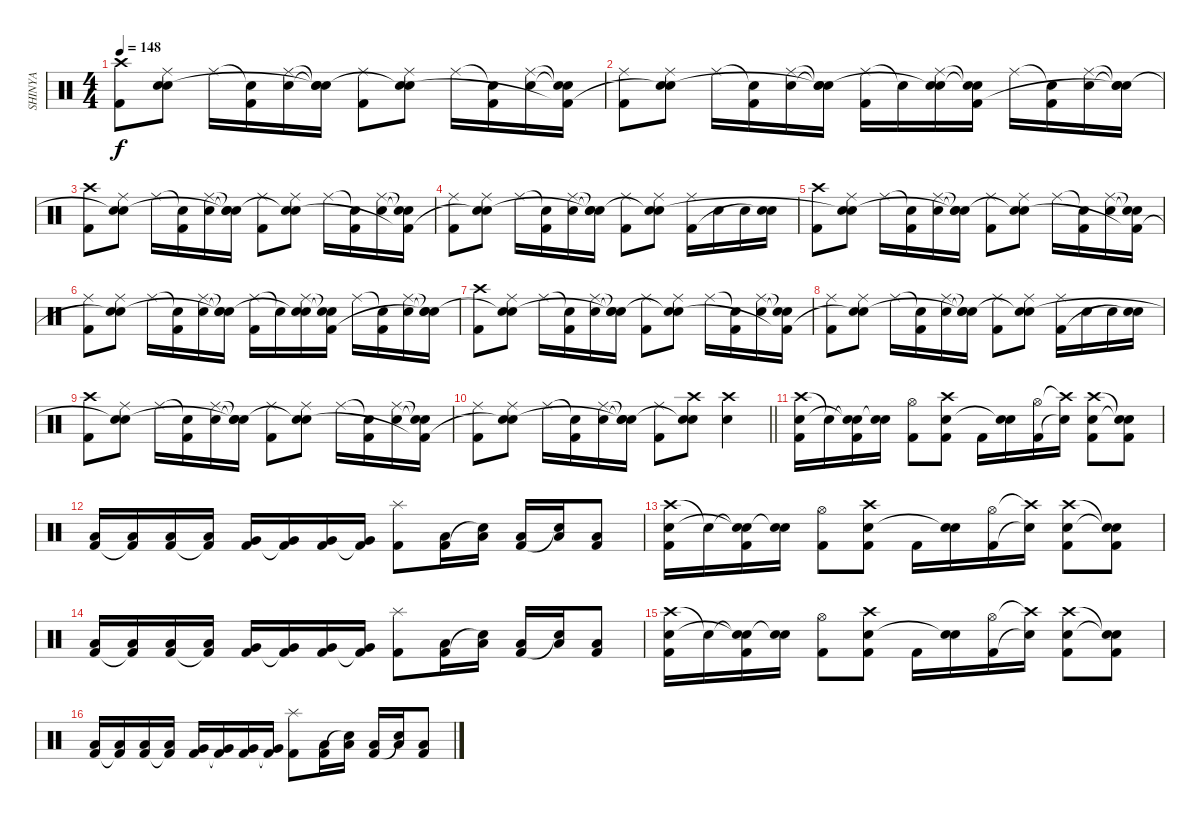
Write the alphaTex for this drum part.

\track ("SHINYA" "SHINYA") {instrument percussion}
\staff {score}
\articulation defaults
\ts (4 4)
\tempo 148
\clef neutral
\ks c
("Crash high (hit)" "Kick (hit) 2").8{dy f} ("Ride (middle)" "Electric Snare (hit)" "Snare (hit)"{t}).8 "Ride (middle)".16 ("Snare (hit)"{t} "Kick (hit) 2").16 ("Ride (middle)" "Electric Snare (hit)").16 ("Snare (hit)"{t} "Snare (hit)"{t} "Snare (hit)"{t}).16 ("Ride (middle)" "Kick (hit) 2").8 ("Ride (middle)" "Electric Snare (hit)" "Snare (hit)"{t}).8 "Ride (middle)".16 ("Snare (hit)"{t} "Kick (hit) 2").16 ("Ride (middle)" "Electric Snare (hit)").16 ("Snare (hit)"{t} "Snare (hit)"{t} "Kick (hit) 2"{t}).16 |
("Ride (middle)" "Kick (hit) 2").8 ("Ride (middle)" "Electric Snare (hit)" "Snare (hit)"{t}).8 "Ride (middle)".16 ("Snare (hit)"{t} "Kick (hit) 2").16 ("Ride (middle)" "Electric Snare (hit)").16 ("Snare (hit)"{t} "Electric Snare (hit)"{t} "Snare (hit)"{t}).16 ("Ride (middle)" "Kick (hit) 2").16 "Snare (hit)"{t}.16 ("Ride (middle)" "Electric Snare (hit)" "Snare (hit)"{t}).16 ("Snare (hit)"{t} "Snare (hit)"{t} "Kick (hit) 2").16 "Ride (middle)".16 ("Snare (hit)"{t} "Kick (hit) 2").16 ("Ride (middle)" "Electric Snare (hit)").16 ("Snare (hit)"{t} "Electric Snare (hit)"{t} "Snare (hit)"{t}).16 |
("Crash high (hit)" "Kick (hit) 2").8 ("Ride (middle)" "Electric Snare (hit)" "Snare (hit)"{t}).8 "Ride (middle)".16 ("Snare (hit)"{t} "Kick (hit) 2").16 ("Ride (middle)" "Electric Snare (hit)").16 ("Snare (hit)"{t} "Snare (hit)"{t} "Snare (hit)"{t}).16 ("Ride (middle)" "Kick (hit) 2").8 ("Ride (middle)" "Electric Snare (hit)" "Snare (hit)"{t}).8 "Ride (middle)".16 ("Snare (hit)"{t} "Kick (hit) 2").16 ("Ride (middle)" "Electric Snare (hit)").16 ("Snare (hit)"{t} "Snare (hit)"{t} "Kick (hit) 2"{t}).16 |
("Ride (middle)" "Kick (hit) 2").8 ("Ride (middle)" "Electric Snare (hit)" "Snare (hit)"{t}).8 "Ride (middle)".16 ("Snare (hit)"{t} "Kick (hit) 2").16 ("Ride (middle)" "Electric Snare (hit)").16 ("Snare (hit)"{t} "Electric Snare (hit)"{t} "Snare (hit)"{t}).16 ("Ride (middle)" "Kick (hit) 2").8 ("Ride (middle)" "Electric Snare (hit)" "Snare (hit)"{t}).8 ("Ride (middle)" "Kick (hit) 2").16 "Electric Snare (hit)".16 "Electric Snare (hit)".16 ("Electric Snare (hit)" "Snare (hit)"{t}).16 |
("Crash high (hit)" "Kick (hit) 2").8 ("Ride (middle)" "Electric Snare (hit)" "Snare (hit)"{t}).8 "Ride (middle)".16 ("Snare (hit)"{t} "Kick (hit) 2").16 ("Ride (middle)" "Electric Snare (hit)").16 ("Snare (hit)"{t} "Snare (hit)"{t} "Snare (hit)"{t}).16 ("Ride (middle)" "Kick (hit) 2").8 ("Ride (middle)" "Electric Snare (hit)" "Snare (hit)"{t}).8 "Ride (middle)".16 ("Snare (hit)"{t} "Kick (hit) 2").16 ("Ride (middle)" "Electric Snare (hit)").16 ("Snare (hit)"{t} "Snare (hit)"{t} "Kick (hit) 2"{t}).16 |
("Ride (middle)" "Kick (hit) 2").8 ("Ride (middle)" "Electric Snare (hit)" "Snare (hit)"{t}).8 "Ride (middle)".16 ("Snare (hit)"{t} "Kick (hit) 2").16 ("Ride (middle)" "Electric Snare (hit)").16 ("Snare (hit)"{t} "Electric Snare (hit)"{t} "Snare (hit)"{t}).16 ("Ride (middle)" "Kick (hit) 2").16 "Snare (hit)"{t}.16 ("Ride (middle)" "Electric Snare (hit)" "Snare (hit)"{t}).16 ("Snare (hit)"{t} "Snare (hit)"{t} "Kick (hit) 2").16 "Ride (middle)".16 ("Snare (hit)"{t} "Kick (hit) 2").16 ("Ride (middle)" "Electric Snare (hit)").16 ("Snare (hit)"{t} "Electric Snare (hit)"{t} "Snare (hit)"{t}).16 |
("Crash high (hit)" "Kick (hit) 2").8 ("Ride (middle)" "Electric Snare (hit)" "Snare (hit)"{t}).8 "Ride (middle)".16 ("Snare (hit)"{t} "Kick (hit) 2").16 ("Ride (middle)" "Electric Snare (hit)").16 ("Snare (hit)"{t} "Snare (hit)"{t} "Snare (hit)"{t}).16 ("Ride (middle)" "Kick (hit) 2").8 ("Ride (middle)" "Electric Snare (hit)" "Snare (hit)"{t}).8 "Ride (middle)".16 ("Snare (hit)"{t} "Kick (hit) 2").16 ("Ride (middle)" "Electric Snare (hit)").16 ("Snare (hit)"{t} "Snare (hit)"{t} "Kick (hit) 2"{t}).16 |
("Ride (middle)" "Kick (hit) 2").8 ("Ride (middle)" "Electric Snare (hit)" "Snare (hit)"{t}).8 "Ride (middle)".16 ("Snare (hit)"{t} "Kick (hit) 2").16 ("Ride (middle)" "Electric Snare (hit)").16 ("Snare (hit)"{t} "Electric Snare (hit)"{t} "Snare (hit)"{t}).16 ("Ride (middle)" "Kick (hit) 2").8 ("Ride (middle)" "Electric Snare (hit)" "Snare (hit)"{t}).8 ("Ride (middle)" "Kick (hit) 2").16 "Electric Snare (hit)".16 "Electric Snare (hit)".16 ("Electric Snare (hit)" "Snare (hit)"{t}).16 |
("Crash high (hit)" "Kick (hit) 2").8 ("Ride (middle)" "Electric Snare (hit)" "Snare (hit)"{t}).8 "Ride (middle)".16 ("Snare (hit)"{t} "Kick (hit) 2").16 ("Ride (middle)" "Electric Snare (hit)").16 ("Snare (hit)"{t} "Snare (hit)"{t} "Snare (hit)"{t}).16 ("Ride (middle)" "Kick (hit) 2").8 ("Ride (middle)" "Electric Snare (hit)" "Snare (hit)"{t}).8 "Ride (middle)".16 ("Snare (hit)"{t} "Kick (hit) 2").16 ("Ride (middle)" "Electric Snare (hit)").16 ("Snare (hit)"{t} "Snare (hit)"{t} "Kick (hit) 2"{t}).16 |
\barLineRight lightlight
("Ride (middle)" "Kick (hit) 2").8 ("Ride (middle)" "Electric Snare (hit)" "Snare (hit)"{t}).8 "Ride (middle)".16 ("Snare (hit)"{t} "Kick (hit) 2").16 ("Ride (middle)" "Electric Snare (hit)").16 ("Snare (hit)"{t} "Snare (hit)"{t} "Snare (hit)"{t}).16 ("Ride (middle)" "Kick (hit) 2").8 ("Crash high (hit)" "Electric Snare (hit)" "Snare (hit)"{t}).8 ("Crash high (hit)" "Electric Snare (hit)").4 |
("Crash high (hit)" "Electric Snare (hit)" "Kick (hit) 2").16 "Snare (hit)"{t}.16 ("Snare (hit)"{t} "Snare (hit)"{t} "Kick (hit) 2").16 ("Electric Snare (hit)" "Snare (hit)"{t}).16 ("Hi-Hat (open)" "Kick (hit) 2").8 ("Crash high (hit)" "Electric Snare (hit)" "Kick (hit) 2").8 "Kick (hit) 2".16 ("Electric Snare (hit)" "Snare (hit)"{t}).16 ("Hi-Hat (open)" "Kick (hit) 2").16 ("Crash high (hit)"{t} "Snare (hit)"{t}).16 ("Crash high (hit)" "Electric Snare (hit)" "Kick (hit) 2").8 ("Snare (hit)"{t} "Snare (hit)"{t} "Kick (hit) 2").8 |
("Low Tom (hit)" "Kick (hit) 2").16 ("Low Tom (hit)" "Kick (hit) 2"{t}).16 ("Low Tom (hit)" "Kick (hit) 2").16 ("Low Tom (hit)" "Kick (hit) 2"{t}).16 ("Very Low Tom (hit)" "Kick (hit) 2").16 ("Very Low Tom (hit)" "Kick (hit) 2"{t}).16 ("Very Low Tom (hit)" "Kick (hit) 2").16 ("Very Low Tom (hit)" "Kick (hit) 2"{t}).16 ("Splash (hit)" "Kick (hit) 2").8 ("Low Floor Tom (hit)" "Kick (hit) 2").16 ("Low Floor Tom (hit)" "Snare (hit)"{t}).16 ("Low Floor Tom (hit)" "Kick (hit) 2").16 ("Low Floor Tom (hit)" "Snare (hit)"{t}).16 ("Low Floor Tom (hit)" "Kick (hit) 2").8 |
("Crash high (hit)" "Electric Snare (hit)" "Kick (hit) 2").16 "Snare (hit)"{t}.16 ("Snare (hit)"{t} "Snare (hit)"{t} "Kick (hit) 2").16 ("Electric Snare (hit)" "Snare (hit)"{t}).16 ("Hi-Hat (open)" "Kick (hit) 2").8 ("Crash high (hit)" "Electric Snare (hit)" "Kick (hit) 2").8 "Kick (hit) 2".16 ("Electric Snare (hit)" "Snare (hit)"{t}).16 ("Hi-Hat (open)" "Kick (hit) 2").16 ("Crash high (hit)"{t} "Snare (hit)"{t}).16 ("Crash high (hit)" "Electric Snare (hit)" "Kick (hit) 2").8 ("Snare (hit)"{t} "Snare (hit)"{t} "Kick (hit) 2").8 |
("Low Tom (hit)" "Kick (hit) 2").16 ("Low Tom (hit)" "Kick (hit) 2"{t}).16 ("Low Tom (hit)" "Kick (hit) 2").16 ("Low Tom (hit)" "Kick (hit) 2"{t}).16 ("Very Low Tom (hit)" "Kick (hit) 2").16 ("Very Low Tom (hit)" "Kick (hit) 2"{t}).16 ("Very Low Tom (hit)" "Kick (hit) 2").16 ("Very Low Tom (hit)" "Kick (hit) 2"{t}).16 ("Splash (hit)" "Kick (hit) 2").8 ("Low Floor Tom (hit)" "Kick (hit) 2").16 ("Low Floor Tom (hit)" "Snare (hit)"{t}).16 ("Low Floor Tom (hit)" "Kick (hit) 2").16 ("Low Floor Tom (hit)" "Snare (hit)"{t}).16 ("Low Floor Tom (hit)" "Kick (hit) 2").8 |
("Crash high (hit)" "Electric Snare (hit)" "Kick (hit) 2").16 "Snare (hit)"{t}.16 ("Snare (hit)"{t} "Snare (hit)"{t} "Kick (hit) 2").16 ("Electric Snare (hit)" "Snare (hit)"{t}).16 ("Hi-Hat (open)" "Kick (hit) 2").8 ("Crash high (hit)" "Electric Snare (hit)" "Kick (hit) 2").8 "Kick (hit) 2".16 ("Electric Snare (hit)" "Snare (hit)"{t}).16 ("Hi-Hat (open)" "Kick (hit) 2").16 ("Crash high (hit)"{t} "Snare (hit)"{t}).16 ("Crash high (hit)" "Electric Snare (hit)" "Kick (hit) 2").8 ("Snare (hit)"{t} "Snare (hit)"{t} "Kick (hit) 2").8 |
("Low Tom (hit)" "Kick (hit) 2").16 ("Low Tom (hit)" "Kick (hit) 2"{t}).16 ("Low Tom (hit)" "Kick (hit) 2").16 ("Low Tom (hit)" "Kick (hit) 2"{t}).16 ("Very Low Tom (hit)" "Kick (hit) 2").16 ("Very Low Tom (hit)" "Kick (hit) 2"{t}).16 ("Very Low Tom (hit)" "Kick (hit) 2").16 ("Very Low Tom (hit)" "Kick (hit) 2"{t}).16 ("Splash (hit)" "Kick (hit) 2").8 ("Low Floor Tom (hit)" "Kick (hit) 2").16 ("Low Floor Tom (hit)" "Snare (hit)"{t}).16 ("Low Floor Tom (hit)" "Kick (hit) 2").16 ("Low Floor Tom (hit)" "Snare (hit)"{t}).16 ("Low Floor Tom (hit)" "Kick (hit) 2").8
